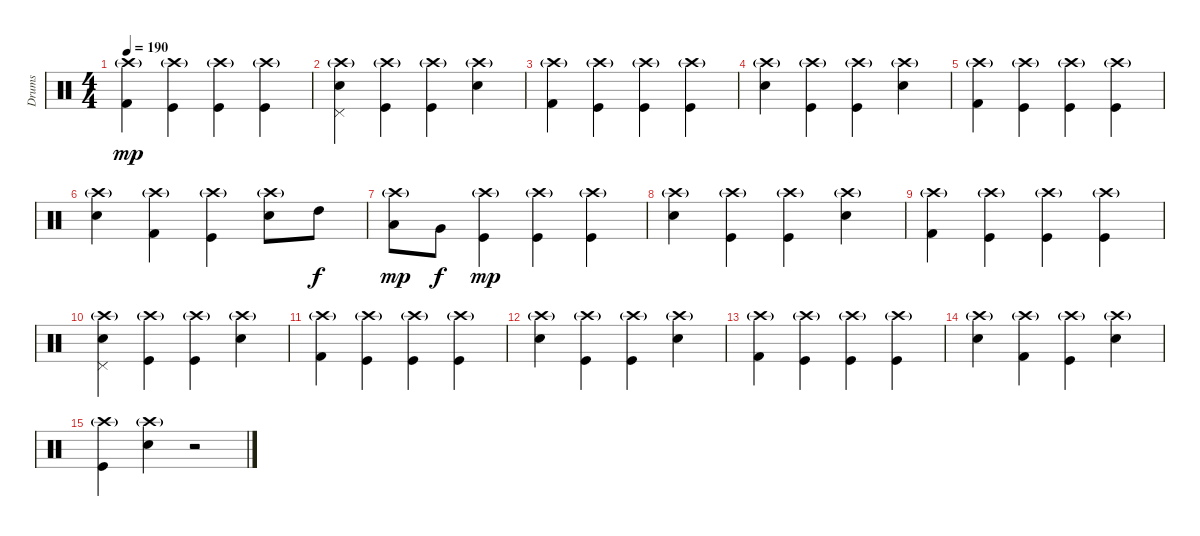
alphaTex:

\track ("Drums" "Drums") {instrument percussion}
\staff {score}
\articulation defaults
\ts (4 4)
\tempo 190
\clef neutral
\ks c
("Kick (hit) 2" "Crash high (hit)"{g}).4{dy mp} ("Kick (hit)" "Crash high (hit)"{g}).4 ("Kick (hit)" "Crash high (hit)"{g}).4 ("Kick (hit)" "Crash high (hit)"{g}).4 |
("Snare (hit) 2" "Pedal Hi-Hat (hit)" "Crash high (hit)"{g}).4 ("Kick (hit)" "Crash high (hit)"{g}).4 ("Kick (hit)" "Crash high (hit)"{g}).4 ("Snare (hit) 2" "Crash high (hit)"{g}).4 |
("Kick (hit) 2" "Crash high (hit)"{g}).4 ("Kick (hit)" "Crash high (hit)"{g}).4 ("Kick (hit)" "Crash high (hit)"{g}).4 ("Kick (hit)" "Crash high (hit)"{g}).4 |
("Snare (hit) 2" "Crash high (hit)"{g}).4 ("Kick (hit)" "Crash high (hit)"{g}).4 ("Kick (hit)" "Crash high (hit)"{g}).4 ("Snare (hit) 2" "Crash high (hit)"{g}).4 |
("Kick (hit) 2" "Crash high (hit)"{g}).4 ("Kick (hit)" "Crash high (hit)"{g}).4 ("Kick (hit)" "Crash high (hit)"{g}).4 ("Kick (hit)" "Crash high (hit)"{g}).4 |
("Snare (hit) 2" "Crash high (hit)"{g}).4 ("Kick (hit) 2" "Crash high (hit)"{g}).4 ("Kick (hit)" "Crash high (hit)"{g}).4 ("Snare (hit) 2" "Crash high (hit)"{g}).8 "High Tom (hit)".8{dy f} |
("Low Tom (hit)" "Crash high (hit)"{g}).8{dy mp} "Very Low Tom (hit)".8{dy f} ("Kick (hit)" "Crash high (hit)"{g}).4{dy mp} ("Kick (hit)" "Crash high (hit)"{g}).4 ("Kick (hit)" "Crash high (hit)"{g}).4 |
("Snare (hit) 2" "Crash high (hit)"{g}).4 ("Kick (hit)" "Crash high (hit)"{g}).4 ("Kick (hit)" "Crash high (hit)"{g}).4 ("Snare (hit) 2" "Crash high (hit)"{g}).4 |
("Kick (hit) 2" "Crash high (hit)"{g}).4 ("Kick (hit)" "Crash high (hit)"{g}).4 ("Kick (hit)" "Crash high (hit)"{g}).4 ("Kick (hit)" "Crash high (hit)"{g}).4 |
("Snare (hit) 2" "Pedal Hi-Hat (hit)" "Crash high (hit)"{g}).4 ("Kick (hit)" "Crash high (hit)"{g}).4 ("Kick (hit)" "Crash high (hit)"{g}).4 ("Snare (hit) 2" "Crash high (hit)"{g}).4 |
("Kick (hit) 2" "Crash high (hit)"{g}).4 ("Kick (hit)" "Crash high (hit)"{g}).4 ("Kick (hit)" "Crash high (hit)"{g}).4 ("Kick (hit)" "Crash high (hit)"{g}).4 |
("Snare (hit) 2" "Crash high (hit)"{g}).4 ("Kick (hit)" "Crash high (hit)"{g}).4 ("Kick (hit)" "Crash high (hit)"{g}).4 ("Snare (hit) 2" "Crash high (hit)"{g}).4 |
("Kick (hit) 2" "Crash high (hit)"{g}).4 ("Kick (hit)" "Crash high (hit)"{g}).4 ("Kick (hit)" "Crash high (hit)"{g}).4 ("Kick (hit)" "Crash high (hit)"{g}).4 |
("Snare (hit) 2" "Crash high (hit)"{g}).4 ("Kick (hit) 2" "Crash high (hit)"{g}).4 ("Kick (hit)" "Crash high (hit)"{g}).4 ("Snare (hit) 2" "Crash high (hit)"{g}).4 |
("Kick (hit)" "Crash high (hit)"{g}).4 ("Electric Snare (hit)" "Crash high (hit)"{g}).4 r.2
